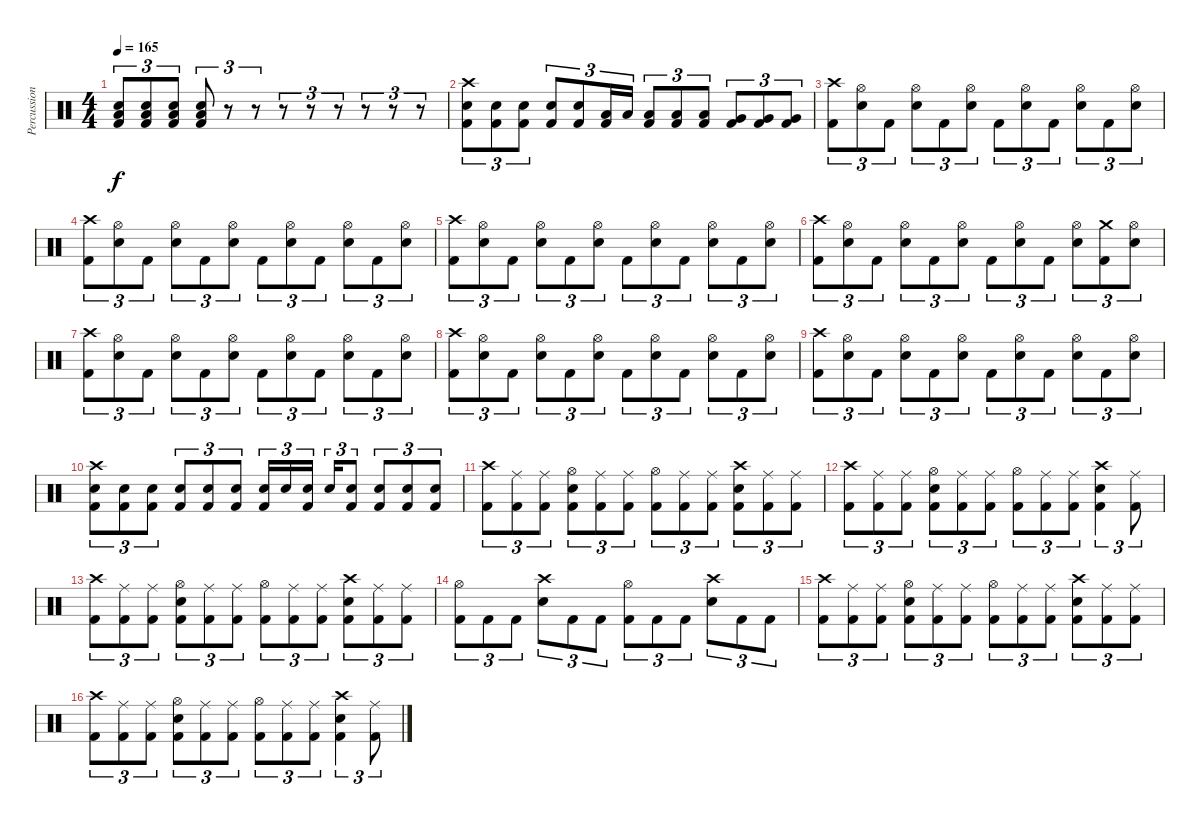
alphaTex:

\track ("Percussion" "Percussion") {instrument percussion}
\staff {score}
\articulation defaults
\ts (4 4)
\tempo 165
\clef neutral
\ks c
("Low Floor Tom (hit)" "Electric Snare (hit)" "Kick (hit) 2").8{tu (3 2) dy f} ("Low Floor Tom (hit)" "Electric Snare (hit)" "Kick (hit) 2").8{tu (3 2)} ("Low Floor Tom (hit)" "Electric Snare (hit)" "Kick (hit) 2").8{tu (3 2)} ("Low Floor Tom (hit)" "Electric Snare (hit)" "Kick (hit) 2").8{tu (3 2)} r.8{tu (3 2)} r.8{tu (3 2)} r.8{tu (3 2)} r.8{tu (3 2)} r.8{tu (3 2)} r.8{tu (3 2)} r.8{tu (3 2)} r.8{tu (3 2)} |
("Crash high (hit)" "Electric Snare (hit)" "Kick (hit) 2").8{tu (3 2)} ("Electric Snare (hit)" "Kick (hit) 2").8{tu (3 2)} ("Electric Snare (hit)" "Kick (hit) 2").8{tu (3 2)} ("Electric Snare (hit)" "Kick (hit) 2").8{tu (3 2)} ("Electric Snare (hit)" "Kick (hit) 2").8{tu (3 2)} ("Low Tom (hit)" "Kick (hit) 2").16{tu (3 2)} "Low Tom (hit)".16{tu (3 2)} ("Low Tom (hit)" "Kick (hit) 2").8{tu (3 2)} ("Low Tom (hit)" "Kick (hit) 2").8{tu (3 2)} ("Low Tom (hit)" "Kick (hit) 2").8{tu (3 2)} ("Very Low Tom (hit)" "Kick (hit) 2").8{tu (3 2)} ("Very Low Tom (hit)" "Kick (hit) 2").8{tu (3 2)} ("Very Low Tom (hit)" "Kick (hit) 2").8{tu (3 2)} |
("Crash high (hit)" "Kick (hit) 2").8{tu (3 2)} ("Hi-Hat (open)" "Electric Snare (hit)").8{tu (3 2)} "Kick (hit) 2".8{tu (3 2)} ("Hi-Hat (open)" "Electric Snare (hit)").8{tu (3 2)} "Kick (hit) 2".8{tu (3 2)} ("Hi-Hat (open)" "Electric Snare (hit)").8{tu (3 2)} "Kick (hit) 2".8{tu (3 2)} ("Hi-Hat (open)" "Electric Snare (hit)").8{tu (3 2)} "Kick (hit) 2".8{tu (3 2)} ("Hi-Hat (open)" "Electric Snare (hit)").8{tu (3 2)} "Kick (hit) 2".8{tu (3 2)} ("Hi-Hat (open)" "Electric Snare (hit)").8{tu (3 2)} |
("Crash high (hit)" "Kick (hit) 2").8{tu (3 2)} ("Hi-Hat (open)" "Electric Snare (hit)").8{tu (3 2)} "Kick (hit) 2".8{tu (3 2)} ("Hi-Hat (open)" "Electric Snare (hit)").8{tu (3 2)} "Kick (hit) 2".8{tu (3 2)} ("Hi-Hat (open)" "Electric Snare (hit)").8{tu (3 2)} "Kick (hit) 2".8{tu (3 2)} ("Hi-Hat (open)" "Electric Snare (hit)").8{tu (3 2)} "Kick (hit) 2".8{tu (3 2)} ("Hi-Hat (open)" "Electric Snare (hit)").8{tu (3 2)} "Kick (hit) 2".8{tu (3 2)} ("Hi-Hat (open)" "Electric Snare (hit)").8{tu (3 2)} |
("Crash high (hit)" "Kick (hit) 2").8{tu (3 2)} ("Hi-Hat (open)" "Electric Snare (hit)").8{tu (3 2)} "Kick (hit) 2".8{tu (3 2)} ("Hi-Hat (open)" "Electric Snare (hit)").8{tu (3 2)} "Kick (hit) 2".8{tu (3 2)} ("Hi-Hat (open)" "Electric Snare (hit)").8{tu (3 2)} "Kick (hit) 2".8{tu (3 2)} ("Hi-Hat (open)" "Electric Snare (hit)").8{tu (3 2)} "Kick (hit) 2".8{tu (3 2)} ("Hi-Hat (open)" "Electric Snare (hit)").8{tu (3 2)} "Kick (hit) 2".8{tu (3 2)} ("Hi-Hat (open)" "Electric Snare (hit)").8{tu (3 2)} |
("Crash high (hit)" "Kick (hit) 2").8{tu (3 2)} ("Hi-Hat (open)" "Electric Snare (hit)").8{tu (3 2)} "Kick (hit) 2".8{tu (3 2)} ("Hi-Hat (open)" "Electric Snare (hit)").8{tu (3 2)} "Kick (hit) 2".8{tu (3 2)} ("Hi-Hat (open)" "Electric Snare (hit)").8{tu (3 2)} "Kick (hit) 2".8{tu (3 2)} ("Hi-Hat (open)" "Electric Snare (hit)").8{tu (3 2)} "Kick (hit) 2".8{tu (3 2)} ("Hi-Hat (open)" "Electric Snare (hit)").8{tu (3 2)} ("Crash medium (hit)" "Kick (hit) 2").8{tu (3 2)} ("Hi-Hat (open)" "Electric Snare (hit)").8{tu (3 2)} |
("Crash high (hit)" "Kick (hit) 2").8{tu (3 2)} ("Hi-Hat (open)" "Electric Snare (hit)").8{tu (3 2)} "Kick (hit) 2".8{tu (3 2)} ("Hi-Hat (open)" "Electric Snare (hit)").8{tu (3 2)} "Kick (hit) 2".8{tu (3 2)} ("Hi-Hat (open)" "Electric Snare (hit)").8{tu (3 2)} "Kick (hit) 2".8{tu (3 2)} ("Hi-Hat (open)" "Electric Snare (hit)").8{tu (3 2)} "Kick (hit) 2".8{tu (3 2)} ("Hi-Hat (open)" "Electric Snare (hit)").8{tu (3 2)} "Kick (hit) 2".8{tu (3 2)} ("Hi-Hat (open)" "Electric Snare (hit)").8{tu (3 2)} |
("Crash high (hit)" "Kick (hit) 2").8{tu (3 2)} ("Hi-Hat (open)" "Electric Snare (hit)").8{tu (3 2)} "Kick (hit) 2".8{tu (3 2)} ("Hi-Hat (open)" "Electric Snare (hit)").8{tu (3 2)} "Kick (hit) 2".8{tu (3 2)} ("Hi-Hat (open)" "Electric Snare (hit)").8{tu (3 2)} "Kick (hit) 2".8{tu (3 2)} ("Hi-Hat (open)" "Electric Snare (hit)").8{tu (3 2)} "Kick (hit) 2".8{tu (3 2)} ("Hi-Hat (open)" "Electric Snare (hit)").8{tu (3 2)} "Kick (hit) 2".8{tu (3 2)} ("Hi-Hat (open)" "Electric Snare (hit)").8{tu (3 2)} |
("Crash high (hit)" "Kick (hit) 2").8{tu (3 2)} ("Hi-Hat (open)" "Electric Snare (hit)").8{tu (3 2)} "Kick (hit) 2".8{tu (3 2)} ("Hi-Hat (open)" "Electric Snare (hit)").8{tu (3 2)} "Kick (hit) 2".8{tu (3 2)} ("Hi-Hat (open)" "Electric Snare (hit)").8{tu (3 2)} "Kick (hit) 2".8{tu (3 2)} ("Hi-Hat (open)" "Electric Snare (hit)").8{tu (3 2)} "Kick (hit) 2".8{tu (3 2)} ("Hi-Hat (open)" "Electric Snare (hit)").8{tu (3 2)} "Kick (hit) 2".8{tu (3 2)} ("Hi-Hat (open)" "Electric Snare (hit)").8{tu (3 2)} |
("Crash high (hit)" "Electric Snare (hit)" "Kick (hit) 2").8{tu (3 2)} ("Electric Snare (hit)" "Kick (hit) 2").8{tu (3 2)} ("Electric Snare (hit)" "Kick (hit) 2").8{tu (3 2)} ("Electric Snare (hit)" "Kick (hit) 2").8{tu (3 2)} ("Electric Snare (hit)" "Kick (hit) 2").8{tu (3 2)} ("Electric Snare (hit)" "Kick (hit) 2").8{tu (3 2)} ("Electric Snare (hit)" "Kick (hit) 2").16{tu (3 2)} "Electric Snare (hit)".16{tu (3 2)} ("Electric Snare (hit)" "Kick (hit) 2").16{tu (3 2)} "Electric Snare (hit)".16{tu (3 2)} ("Electric Snare (hit)" "Kick (hit) 2").8{tu (3 2)} ("Electric Snare (hit)" "Kick (hit) 2").8{tu (3 2)} ("Electric Snare (hit)" "Kick (hit) 2").8{tu (3 2)} ("Electric Snare (hit)" "Kick (hit) 2").8{tu (3 2)} |
("Crash high (hit)" "Kick (hit) 2").8{tu (3 2)} ("Ride (middle)" "Kick (hit) 2").8{tu (3 2)} ("Ride (middle)" "Kick (hit) 2").8{tu (3 2)} ("Hi-Hat (open)" "Electric Snare (hit)" "Kick (hit) 2").8{tu (3 2)} ("Ride (middle)" "Kick (hit) 2").8{tu (3 2)} ("Ride (middle)" "Kick (hit) 2").8{tu (3 2)} ("Hi-Hat (open)" "Kick (hit) 2").8{tu (3 2)} ("Ride (middle)" "Kick (hit) 2").8{tu (3 2)} ("Ride (middle)" "Kick (hit) 2").8{tu (3 2)} ("Crash high (hit)" "Electric Snare (hit)" "Kick (hit) 2").8{tu (3 2)} ("Ride (middle)" "Kick (hit) 2").8{tu (3 2)} ("Ride (middle)" "Kick (hit) 2").8{tu (3 2)} |
("Crash high (hit)" "Kick (hit) 2").8{tu (3 2)} ("Ride (middle)" "Kick (hit) 2").8{tu (3 2)} ("Ride (middle)" "Kick (hit) 2").8{tu (3 2)} ("Hi-Hat (open)" "Electric Snare (hit)" "Kick (hit) 2").8{tu (3 2)} ("Ride (middle)" "Kick (hit) 2").8{tu (3 2)} ("Ride (middle)" "Kick (hit) 2").8{tu (3 2)} ("Hi-Hat (open)" "Kick (hit) 2").8{tu (3 2)} ("Ride (middle)" "Kick (hit) 2").8{tu (3 2)} ("Ride (middle)" "Kick (hit) 2").8{tu (3 2)} ("Crash high (hit)" "Electric Snare (hit)" "Kick (hit) 2").4{tu (3 2)} ("Ride (middle)" "Kick (hit) 2").8{tu (3 2)} |
("Crash high (hit)" "Kick (hit) 2").8{tu (3 2)} ("Ride (middle)" "Kick (hit) 2").8{tu (3 2)} ("Ride (middle)" "Kick (hit) 2").8{tu (3 2)} ("Hi-Hat (open)" "Electric Snare (hit)" "Kick (hit) 2").8{tu (3 2)} ("Ride (middle)" "Kick (hit) 2").8{tu (3 2)} ("Ride (middle)" "Kick (hit) 2").8{tu (3 2)} ("Hi-Hat (open)" "Kick (hit) 2").8{tu (3 2)} ("Ride (middle)" "Kick (hit) 2").8{tu (3 2)} ("Ride (middle)" "Kick (hit) 2").8{tu (3 2)} ("Crash high (hit)" "Electric Snare (hit)" "Kick (hit) 2").8{tu (3 2)} ("Ride (middle)" "Kick (hit) 2").8{tu (3 2)} ("Ride (middle)" "Kick (hit) 2").8{tu (3 2)} |
("Hi-Hat (open)" "Kick (hit) 2").8{tu (3 2)} "Kick (hit) 2".8{tu (3 2)} "Kick (hit) 2".8{tu (3 2)} ("Crash high (hit)" "Electric Snare (hit)").8{tu (3 2)} "Kick (hit) 2".8{tu (3 2)} "Kick (hit) 2".8{tu (3 2)} ("Hi-Hat (open)" "Kick (hit) 2").8{tu (3 2)} "Kick (hit) 2".8{tu (3 2)} "Kick (hit) 2".8{tu (3 2)} ("Crash high (hit)" "Electric Snare (hit)").8{tu (3 2)} "Kick (hit) 2".8{tu (3 2)} "Kick (hit) 2".8{tu (3 2)} |
("Crash high (hit)" "Kick (hit) 2").8{tu (3 2)} ("Ride (middle)" "Kick (hit) 2").8{tu (3 2)} ("Ride (middle)" "Kick (hit) 2").8{tu (3 2)} ("Hi-Hat (open)" "Electric Snare (hit)" "Kick (hit) 2").8{tu (3 2)} ("Ride (middle)" "Kick (hit) 2").8{tu (3 2)} ("Ride (middle)" "Kick (hit) 2").8{tu (3 2)} ("Hi-Hat (open)" "Kick (hit) 2").8{tu (3 2)} ("Ride (middle)" "Kick (hit) 2").8{tu (3 2)} ("Ride (middle)" "Kick (hit) 2").8{tu (3 2)} ("Crash high (hit)" "Electric Snare (hit)" "Kick (hit) 2").8{tu (3 2)} ("Ride (middle)" "Kick (hit) 2").8{tu (3 2)} ("Ride (middle)" "Kick (hit) 2").8{tu (3 2)} |
("Crash high (hit)" "Kick (hit) 2").8{tu (3 2)} ("Ride (middle)" "Kick (hit) 2").8{tu (3 2)} ("Ride (middle)" "Kick (hit) 2").8{tu (3 2)} ("Hi-Hat (open)" "Electric Snare (hit)" "Kick (hit) 2").8{tu (3 2)} ("Ride (middle)" "Kick (hit) 2").8{tu (3 2)} ("Ride (middle)" "Kick (hit) 2").8{tu (3 2)} ("Hi-Hat (open)" "Kick (hit) 2").8{tu (3 2)} ("Ride (middle)" "Kick (hit) 2").8{tu (3 2)} ("Ride (middle)" "Kick (hit) 2").8{tu (3 2)} ("Crash high (hit)" "Electric Snare (hit)" "Kick (hit) 2").4{tu (3 2)} ("Ride (middle)" "Kick (hit) 2").8{tu (3 2)}
